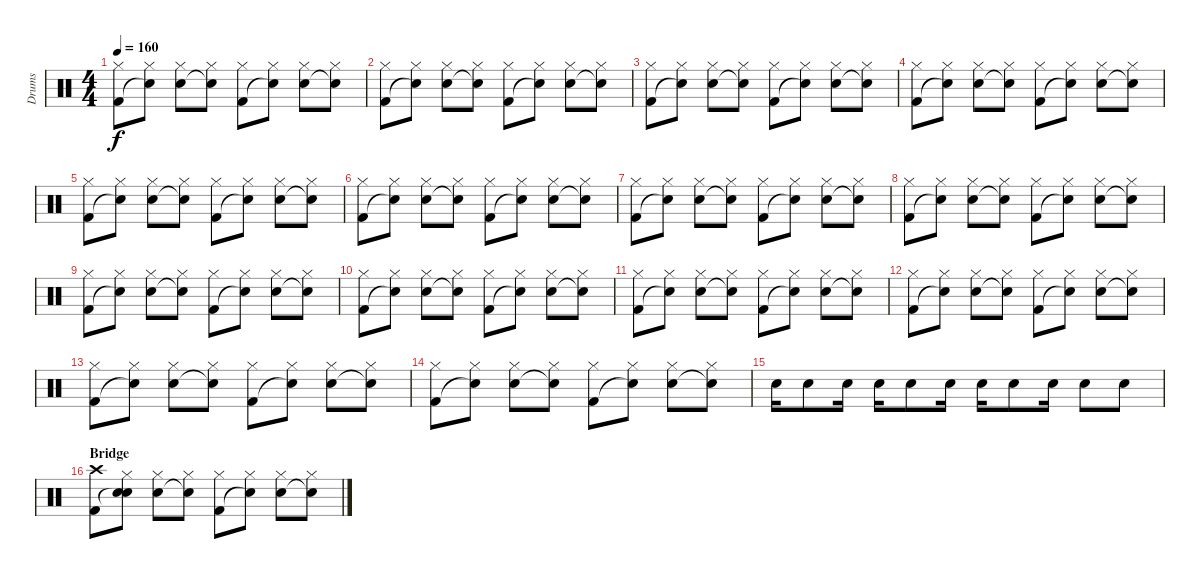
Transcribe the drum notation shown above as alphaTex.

\track ("Drums" "Drums") {instrument percussion}
\staff {score}
\articulation defaults
\ts (4 4)
\tempo 160
\clef neutral
\ks c
("Kick (hit) 2" "Hi-Hat (closed)").8{dy f} ("Snare (hit)"{t} "Hi-Hat (closed)").8 ("Snare (hit) 2" "Hi-Hat (closed)").8 ("Snare (hit)"{t} "Hi-Hat (closed)").8 ("Kick (hit) 2" "Hi-Hat (closed)").8 ("Snare (hit)"{t} "Hi-Hat (closed)").8 ("Snare (hit) 2" "Hi-Hat (closed)").8 ("Snare (hit)"{t} "Hi-Hat (closed)").8 |
("Kick (hit) 2" "Hi-Hat (closed)").8 ("Snare (hit)"{t} "Hi-Hat (closed)").8 ("Snare (hit) 2" "Hi-Hat (closed)").8 ("Snare (hit)"{t} "Hi-Hat (closed)").8 ("Kick (hit) 2" "Hi-Hat (closed)").8 ("Snare (hit)"{t} "Hi-Hat (closed)").8 ("Snare (hit) 2" "Hi-Hat (closed)").8 ("Snare (hit)"{t} "Hi-Hat (closed)").8 |
("Kick (hit) 2" "Hi-Hat (closed)").8 ("Snare (hit)"{t} "Hi-Hat (closed)").8 ("Snare (hit) 2" "Hi-Hat (closed)").8 ("Snare (hit)"{t} "Hi-Hat (closed)").8 ("Kick (hit) 2" "Hi-Hat (closed)").8 ("Snare (hit)"{t} "Hi-Hat (closed)").8 ("Snare (hit) 2" "Hi-Hat (closed)").8 ("Snare (hit)"{t} "Hi-Hat (closed)").8 |
("Kick (hit) 2" "Hi-Hat (closed)").8 ("Snare (hit)"{t} "Hi-Hat (closed)").8 ("Snare (hit) 2" "Hi-Hat (closed)").8 ("Snare (hit)"{t} "Hi-Hat (closed)").8 ("Kick (hit) 2" "Hi-Hat (closed)").8 ("Snare (hit)"{t} "Hi-Hat (closed)").8 ("Snare (hit) 2" "Hi-Hat (closed)").8 ("Snare (hit)"{t} "Hi-Hat (closed)").8 |
("Kick (hit) 2" "Hi-Hat (closed)").8 ("Snare (hit)"{t} "Hi-Hat (closed)").8 ("Snare (hit) 2" "Hi-Hat (closed)").8 ("Snare (hit)"{t} "Hi-Hat (closed)").8 ("Kick (hit) 2" "Hi-Hat (closed)").8 ("Snare (hit)"{t} "Hi-Hat (closed)").8 ("Snare (hit) 2" "Hi-Hat (closed)").8 ("Snare (hit)"{t} "Hi-Hat (closed)").8 |
("Kick (hit) 2" "Hi-Hat (closed)").8 ("Snare (hit)"{t} "Hi-Hat (closed)").8 ("Snare (hit) 2" "Hi-Hat (closed)").8 ("Snare (hit)"{t} "Hi-Hat (closed)").8 ("Kick (hit) 2" "Hi-Hat (closed)").8 ("Snare (hit)"{t} "Hi-Hat (closed)").8 ("Snare (hit) 2" "Hi-Hat (closed)").8 ("Snare (hit)"{t} "Hi-Hat (closed)").8 |
("Kick (hit) 2" "Hi-Hat (closed)").8 ("Snare (hit)"{t} "Hi-Hat (closed)").8 ("Snare (hit) 2" "Hi-Hat (closed)").8 ("Snare (hit)"{t} "Hi-Hat (closed)").8 ("Kick (hit) 2" "Hi-Hat (closed)").8 ("Snare (hit)"{t} "Hi-Hat (closed)").8 ("Snare (hit) 2" "Hi-Hat (closed)").8 ("Snare (hit)"{t} "Hi-Hat (closed)").8 |
("Kick (hit) 2" "Hi-Hat (closed)").8 ("Snare (hit)"{t} "Hi-Hat (closed)").8 ("Snare (hit) 2" "Hi-Hat (closed)").8 ("Snare (hit)"{t} "Hi-Hat (closed)").8 ("Kick (hit) 2" "Hi-Hat (closed)").8 ("Snare (hit)"{t} "Hi-Hat (closed)").8 ("Snare (hit) 2" "Hi-Hat (closed)").8 ("Snare (hit)"{t} "Hi-Hat (closed)").8 |
("Kick (hit) 2" "Hi-Hat (closed)").8 ("Snare (hit)"{t} "Hi-Hat (closed)").8 ("Snare (hit) 2" "Hi-Hat (closed)").8 ("Snare (hit)"{t} "Hi-Hat (closed)").8 ("Kick (hit) 2" "Hi-Hat (closed)").8 ("Snare (hit)"{t} "Hi-Hat (closed)").8 ("Snare (hit) 2" "Hi-Hat (closed)").8 ("Snare (hit)"{t} "Hi-Hat (closed)").8 |
("Kick (hit) 2" "Hi-Hat (closed)").8 ("Snare (hit)"{t} "Hi-Hat (closed)").8 ("Snare (hit) 2" "Hi-Hat (closed)").8 ("Snare (hit)"{t} "Hi-Hat (closed)").8 ("Kick (hit) 2" "Hi-Hat (closed)").8 ("Snare (hit)"{t} "Hi-Hat (closed)").8 ("Snare (hit) 2" "Hi-Hat (closed)").8 ("Snare (hit)"{t} "Hi-Hat (closed)").8 |
("Kick (hit) 2" "Hi-Hat (closed)").8 ("Snare (hit)"{t} "Hi-Hat (closed)").8 ("Snare (hit) 2" "Hi-Hat (closed)").8 ("Snare (hit)"{t} "Hi-Hat (closed)").8 ("Kick (hit) 2" "Hi-Hat (closed)").8 ("Snare (hit)"{t} "Hi-Hat (closed)").8 ("Snare (hit) 2" "Hi-Hat (closed)").8 ("Snare (hit)"{t} "Hi-Hat (closed)").8 |
("Kick (hit) 2" "Hi-Hat (closed)").8 ("Snare (hit)"{t} "Hi-Hat (closed)").8 ("Snare (hit) 2" "Hi-Hat (closed)").8 ("Snare (hit)"{t} "Hi-Hat (closed)").8 ("Kick (hit) 2" "Hi-Hat (closed)").8 ("Snare (hit)"{t} "Hi-Hat (closed)").8 ("Snare (hit) 2" "Hi-Hat (closed)").8 ("Snare (hit)"{t} "Hi-Hat (closed)").8 |
("Kick (hit) 2" "Hi-Hat (closed)").8 ("Snare (hit)"{t} "Hi-Hat (closed)").8 ("Snare (hit) 2" "Hi-Hat (closed)").8 ("Snare (hit)"{t} "Hi-Hat (closed)").8 ("Kick (hit) 2" "Hi-Hat (closed)").8 ("Snare (hit)"{t} "Hi-Hat (closed)").8 ("Snare (hit) 2" "Hi-Hat (closed)").8 ("Snare (hit)"{t} "Hi-Hat (closed)").8 |
("Kick (hit) 2" "Hi-Hat (closed)").8 ("Snare (hit)"{t} "Hi-Hat (closed)").8 ("Snare (hit) 2" "Hi-Hat (closed)").8 ("Snare (hit)"{t} "Hi-Hat (closed)").8 ("Kick (hit) 2" "Hi-Hat (closed)").8 ("Snare (hit)"{t} "Hi-Hat (closed)").8 ("Snare (hit) 2" "Hi-Hat (closed)").8 ("Snare (hit)"{t} "Hi-Hat (closed)").8 |
"Snare (hit) 2".16 "Snare (hit) 2".8 "Snare (hit) 2".16 "Snare (hit) 2".16 "Snare (hit) 2".8 "Snare (hit) 2".16 "Snare (hit) 2".16 "Snare (hit) 2".8 "Snare (hit) 2".16 "Snare (hit) 2".8 "Snare (hit) 2".8 |
\section ("" "Bridge")
("Kick (hit) 2" "Crash high (hit)").8 ("Snare (hit)"{t} "Hi-Hat (closed)" "Snare (hit)").8 ("Snare (hit) 2" "Hi-Hat (closed)").8 ("Snare (hit)"{t} "Hi-Hat (closed)").8 ("Kick (hit) 2" "Hi-Hat (closed)").8 ("Snare (hit)"{t} "Hi-Hat (closed)").8 ("Snare (hit) 2" "Hi-Hat (closed)").8 ("Snare (hit)"{t} "Hi-Hat (closed)").8
